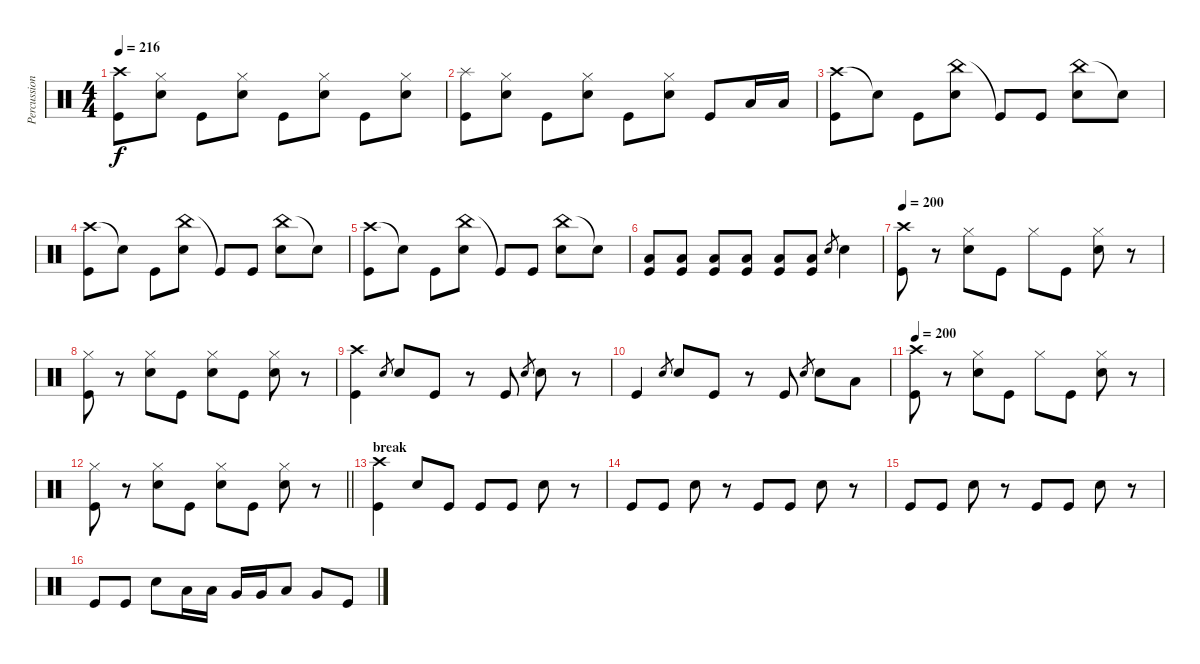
\track ("Percussioni" "Percussion") {instrument percussion}
\staff {score}
\articulation defaults
\ts (4 4)
\tempo 216
\clef neutral
\ks c
("Crash high (hit)" "Kick (hit)").8{dy f} ("Hi-Hat (closed)" "Snare (hit) 2").8 "Kick (hit)".8 ("Hi-Hat (closed)" "Snare (hit) 2").8 "Kick (hit)".8 ("Hi-Hat (closed)" "Snare (hit) 2").8 "Kick (hit)".8 ("Hi-Hat (closed)" "Snare (hit) 2").8 |
("Splash (hit)" "Kick (hit)").8 ("Hi-Hat (closed)" "Snare (hit) 2").8 "Kick (hit)".8 ("Hi-Hat (closed)" "Snare (hit) 2").8 "Kick (hit)".8 ("Hi-Hat (closed)" "Snare (hit) 2").8 "Kick (hit)".8 "Low Tom (hit)".16 "Low Tom (hit)".16 |
("Crash high (hit)" "Kick (hit)").8 "Snare (hit)"{t}.8 "Kick (hit)".8 ("China (hit)" "Snare (hit) 2").8 "Kick (hit)"{t}.8 "Kick (hit)".8 ("China (hit)" "Snare (hit) 2").8 "Snare (hit)"{t}.8 |
("Crash high (hit)" "Kick (hit)").8 "Snare (hit)"{t}.8 "Kick (hit)".8 ("China (hit)" "Snare (hit) 2").8 "Kick (hit)"{t}.8 "Kick (hit)".8 ("China (hit)" "Snare (hit) 2").8 "Snare (hit)"{t}.8 |
("Crash high (hit)" "Kick (hit)").8 "Snare (hit)"{t}.8 "Kick (hit)".8 ("China (hit)" "Snare (hit) 2").8 "Kick (hit)"{t}.8 "Kick (hit)".8 ("China (hit)" "Snare (hit) 2").8 "Snare (hit)"{t}.8 |
("Low Tom (hit)" "Kick (hit)").8 ("Low Tom (hit)" "Kick (hit)").8 ("Low Tom (hit)" "Kick (hit)").8 ("Low Tom (hit)" "Kick (hit)").8 ("Low Tom (hit)" "Kick (hit)").8 ("Low Tom (hit)" "Kick (hit)").8 "Snare (hit) 2".8{gr} "Snare (hit) 2".4 |
\tempo 200
("Crash high (hit)" "Kick (hit)").8 r.8 ("Hi-Hat (closed)" "Snare (hit) 2").8 "Kick (hit)".8 "Hi-Hat (closed)".8 "Kick (hit)".8 ("Hi-Hat (closed)" "Snare (hit) 2").8 r.8 |
("Hi-Hat (closed)" "Kick (hit)").8 r.8 ("Hi-Hat (closed)" "Snare (hit) 2").8 "Kick (hit)".8 ("Hi-Hat (closed)" "Snare (hit) 2").8 "Kick (hit)".8 ("Hi-Hat (closed)" "Snare (hit) 2").8 r.8 |
("Crash high (hit)" "Kick (hit)").4 "Snare (hit) 2".8{gr} "Snare (hit) 2".8 "Kick (hit)".8 r.8 "Kick (hit)".8 "Snare (hit) 2".8{gr} "Snare (hit) 2".8 r.8 |
"Kick (hit)".4 "Snare (hit) 2".8{gr} "Snare (hit) 2".8 "Kick (hit)".8 r.8 "Kick (hit)".8 "Snare (hit) 2".8{gr} "Snare (hit) 2".8 "Low Tom (hit)".8 |
\tempo 200
("Crash high (hit)" "Kick (hit)").8 r.8 ("Hi-Hat (closed)" "Snare (hit) 2").8 "Kick (hit)".8 "Hi-Hat (closed)".8 "Kick (hit)".8 ("Hi-Hat (closed)" "Snare (hit) 2").8 r.8 |
\barLineRight lightlight
("Hi-Hat (closed)" "Kick (hit)").8 r.8 ("Hi-Hat (closed)" "Snare (hit) 2").8 "Kick (hit)".8 ("Hi-Hat (closed)" "Snare (hit) 2").8 "Kick (hit)".8 ("Hi-Hat (closed)" "Snare (hit) 2").8 r.8 |
\section ("" "break")
("Crash high (hit)" "Kick (hit)").4 "Snare (hit) 2".8 "Kick (hit)".8 "Kick (hit)".8 "Kick (hit)".8 "Snare (hit) 2".8 r.8 |
"Kick (hit)".8 "Kick (hit)".8 "Snare (hit) 2".8 r.8 "Kick (hit)".8 "Kick (hit)".8 "Snare (hit) 2".8 r.8 |
"Kick (hit)".8 "Kick (hit)".8 "Snare (hit) 2".8 r.8 "Kick (hit)".8 "Kick (hit)".8 "Snare (hit) 2".8 r.8 |
"Kick (hit)".8 "Kick (hit)".8 "Snare (hit) 2".8 "Low Tom (hit)".16 "Low Tom (hit)".16 "Very Low Tom (hit)".16 "Very Low Tom (hit)".16 "Low Tom (hit)".8 "Very Low Tom (hit)".8 "Kick (hit)".8
